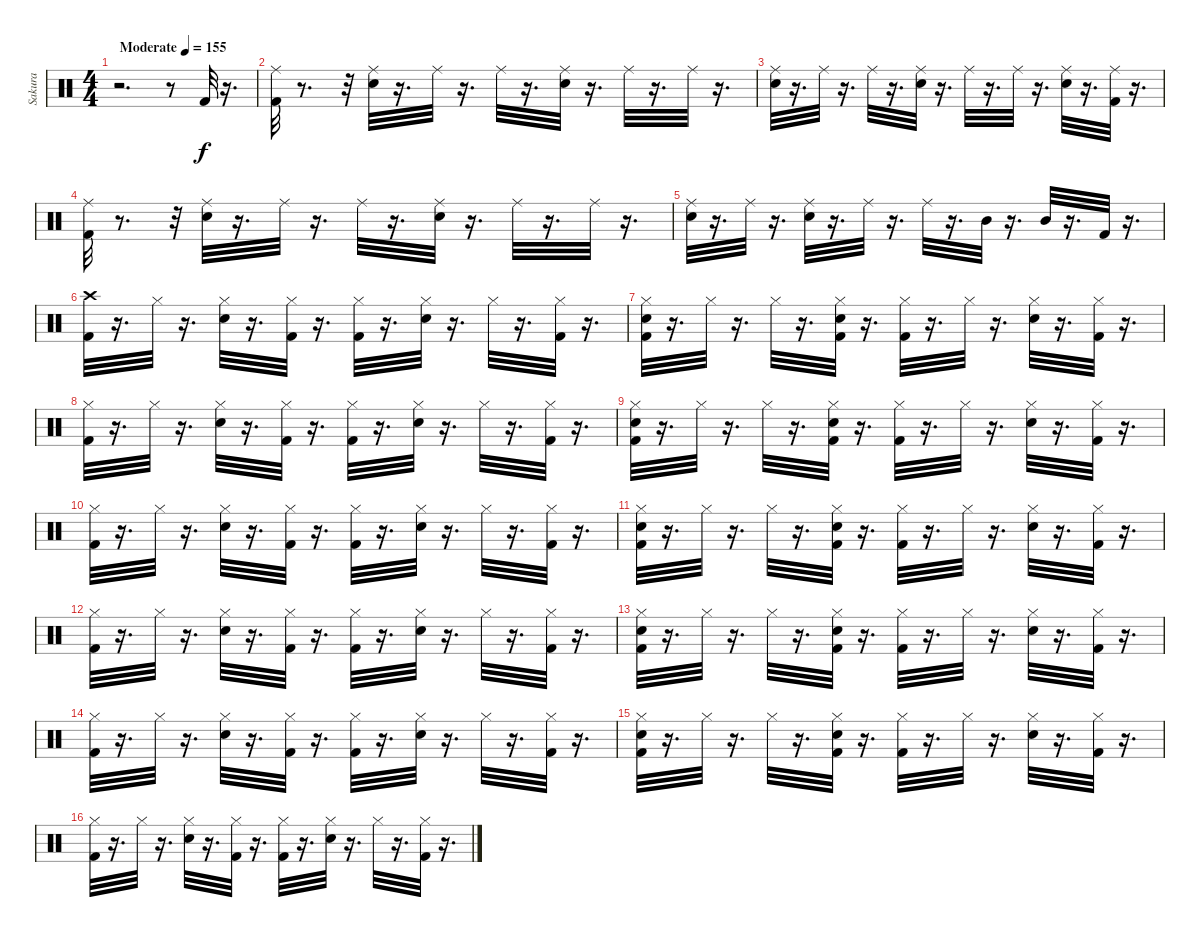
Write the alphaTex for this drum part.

\track ("Sakura" "Sakura") {instrument percussion}
\staff {score}
\articulation defaults
\ts (4 4)
\tempo (155 "Moderate")
\clef neutral
\ks c
r.2{d dy f} r.8 "Kick (hit) 2".32 r.16{d} |
("Ride (middle)" "Kick (hit) 2").32 r.8{d} r.32 ("Ride (middle)" "Snare (hit) 2").32 r.16{d} "Ride (middle)".32 r.16{d} "Ride (middle)".32 r.16{d} ("Ride (middle)" "Snare (hit) 2").32 r.16{d} "Ride (middle)".32 r.16{d} "Ride (middle)".32 r.16{d} |
("Ride (middle)" "Snare (hit) 2").32 r.16{d} "Ride (middle)".32 r.16{d} "Ride (middle)".32 r.16{d} ("Ride (middle)" "Snare (hit) 2").32 r.16{d} "Ride (middle)".32 r.16{d} "Ride (middle)".32 r.16{d} ("Ride (middle)" "Snare (hit) 2").32 r.16{d} ("Ride (middle)" "Kick (hit) 2").32 r.16{d} |
("Ride (middle)" "Kick (hit) 2").32 r.8{d} r.32 ("Ride (middle)" "Snare (hit) 2").32 r.16{d} "Ride (middle)".32 r.16{d} "Ride (middle)".32 r.16{d} ("Ride (middle)" "Snare (hit) 2").32 r.16{d} "Ride (middle)".32 r.16{d} "Ride (middle)".32 r.16{d} |
("Ride (middle)" "Snare (hit) 2").32 r.16{d} "Ride (middle)".32 r.16{d} ("Ride (middle)" "Snare (hit) 2").32 r.16{d} "Ride (middle)".32 r.16{d} "Ride (middle)".32 r.16{d} "Mid Tom (hit)".32 r.16{d} "Mid Tom (hit)".32 r.16{d} "Kick (hit) 2".32 r.16{d} |
("Crash high (hit)" "Kick (hit) 2").32 r.16{d} "Hi-Hat (closed)".32 r.16{d} ("Hi-Hat (closed)" "Snare (hit) 2").32 r.16{d} ("Hi-Hat (closed)" "Kick (hit) 2").32 r.16{d} ("Hi-Hat (closed)" "Kick (hit) 2").32 r.16{d} ("Hi-Hat (closed)" "Snare (hit) 2").32 r.16{d} "Hi-Hat (closed)".32 r.16{d} ("Hi-Hat (closed)" "Kick (hit) 2").32 r.16{d} |
("Hi-Hat (closed)" "Snare (hit) 2" "Kick (hit) 2").32 r.16{d} "Hi-Hat (closed)".32 r.16{d} "Hi-Hat (closed)".32 r.16{d} ("Hi-Hat (closed)" "Kick (hit) 2" "Snare (hit) 2").32 r.16{d} ("Hi-Hat (closed)" "Kick (hit) 2").32 r.16{d} "Hi-Hat (closed)".32 r.16{d} ("Hi-Hat (closed)" "Snare (hit) 2").32 r.16{d} ("Hi-Hat (closed)" "Kick (hit) 2").32 r.16{d} |
("Kick (hit) 2" "Hi-Hat (closed)").32 r.16{d} "Hi-Hat (closed)".32 r.16{d} ("Hi-Hat (closed)" "Snare (hit) 2").32 r.16{d} ("Hi-Hat (closed)" "Kick (hit) 2").32 r.16{d} ("Hi-Hat (closed)" "Kick (hit) 2").32 r.16{d} ("Hi-Hat (closed)" "Snare (hit) 2").32 r.16{d} "Hi-Hat (closed)".32 r.16{d} ("Hi-Hat (closed)" "Kick (hit) 2").32 r.16{d} |
("Hi-Hat (closed)" "Snare (hit) 2" "Kick (hit) 2").32 r.16{d} "Hi-Hat (closed)".32 r.16{d} "Hi-Hat (closed)".32 r.16{d} ("Hi-Hat (closed)" "Kick (hit) 2" "Snare (hit) 2").32 r.16{d} ("Hi-Hat (closed)" "Kick (hit) 2").32 r.16{d} "Hi-Hat (closed)".32 r.16{d} ("Hi-Hat (closed)" "Snare (hit) 2").32 r.16{d} ("Hi-Hat (closed)" "Kick (hit) 2").32 r.16{d} |
("Kick (hit) 2" "Hi-Hat (closed)").32 r.16{d} "Hi-Hat (closed)".32 r.16{d} ("Hi-Hat (closed)" "Snare (hit) 2").32 r.16{d} ("Hi-Hat (closed)" "Kick (hit) 2").32 r.16{d} ("Hi-Hat (closed)" "Kick (hit) 2").32 r.16{d} ("Hi-Hat (closed)" "Snare (hit) 2").32 r.16{d} "Hi-Hat (closed)".32 r.16{d} ("Hi-Hat (closed)" "Kick (hit) 2").32 r.16{d} |
("Hi-Hat (closed)" "Snare (hit) 2" "Kick (hit) 2").32 r.16{d} "Hi-Hat (closed)".32 r.16{d} "Hi-Hat (closed)".32 r.16{d} ("Hi-Hat (closed)" "Kick (hit) 2" "Snare (hit) 2").32 r.16{d} ("Hi-Hat (closed)" "Kick (hit) 2").32 r.16{d} "Hi-Hat (closed)".32 r.16{d} ("Hi-Hat (closed)" "Snare (hit) 2").32 r.16{d} ("Hi-Hat (closed)" "Kick (hit) 2").32 r.16{d} |
("Kick (hit) 2" "Hi-Hat (closed)").32 r.16{d} "Hi-Hat (closed)".32 r.16{d} ("Hi-Hat (closed)" "Snare (hit) 2").32 r.16{d} ("Hi-Hat (closed)" "Kick (hit) 2").32 r.16{d} ("Hi-Hat (closed)" "Kick (hit) 2").32 r.16{d} ("Hi-Hat (closed)" "Snare (hit) 2").32 r.16{d} "Hi-Hat (closed)".32 r.16{d} ("Hi-Hat (closed)" "Kick (hit) 2").32 r.16{d} |
("Hi-Hat (closed)" "Snare (hit) 2" "Kick (hit) 2").32 r.16{d} "Hi-Hat (closed)".32 r.16{d} "Hi-Hat (closed)".32 r.16{d} ("Hi-Hat (closed)" "Kick (hit) 2" "Snare (hit) 2").32 r.16{d} ("Hi-Hat (closed)" "Kick (hit) 2").32 r.16{d} "Hi-Hat (closed)".32 r.16{d} ("Hi-Hat (closed)" "Snare (hit) 2").32 r.16{d} ("Hi-Hat (closed)" "Kick (hit) 2").32 r.16{d} |
("Kick (hit) 2" "Hi-Hat (closed)").32 r.16{d} "Hi-Hat (closed)".32 r.16{d} ("Hi-Hat (closed)" "Snare (hit) 2").32 r.16{d} ("Hi-Hat (closed)" "Kick (hit) 2").32 r.16{d} ("Hi-Hat (closed)" "Kick (hit) 2").32 r.16{d} ("Hi-Hat (closed)" "Snare (hit) 2").32 r.16{d} "Hi-Hat (closed)".32 r.16{d} ("Hi-Hat (closed)" "Kick (hit) 2").32 r.16{d} |
("Hi-Hat (closed)" "Snare (hit) 2" "Kick (hit) 2").32 r.16{d} "Hi-Hat (closed)".32 r.16{d} "Hi-Hat (closed)".32 r.16{d} ("Hi-Hat (closed)" "Kick (hit) 2" "Snare (hit) 2").32 r.16{d} ("Hi-Hat (closed)" "Kick (hit) 2").32 r.16{d} "Hi-Hat (closed)".32 r.16{d} ("Hi-Hat (closed)" "Snare (hit) 2").32 r.16{d} ("Hi-Hat (closed)" "Kick (hit) 2").32 r.16{d} |
("Kick (hit) 2" "Hi-Hat (closed)").32 r.16{d} "Hi-Hat (closed)".32 r.16{d} ("Hi-Hat (closed)" "Snare (hit) 2").32 r.16{d} ("Hi-Hat (closed)" "Kick (hit) 2").32 r.16{d} ("Hi-Hat (closed)" "Kick (hit) 2").32 r.16{d} ("Hi-Hat (closed)" "Snare (hit) 2").32 r.16{d} "Hi-Hat (closed)".32 r.16{d} ("Hi-Hat (closed)" "Kick (hit) 2").32 r.16{d}
